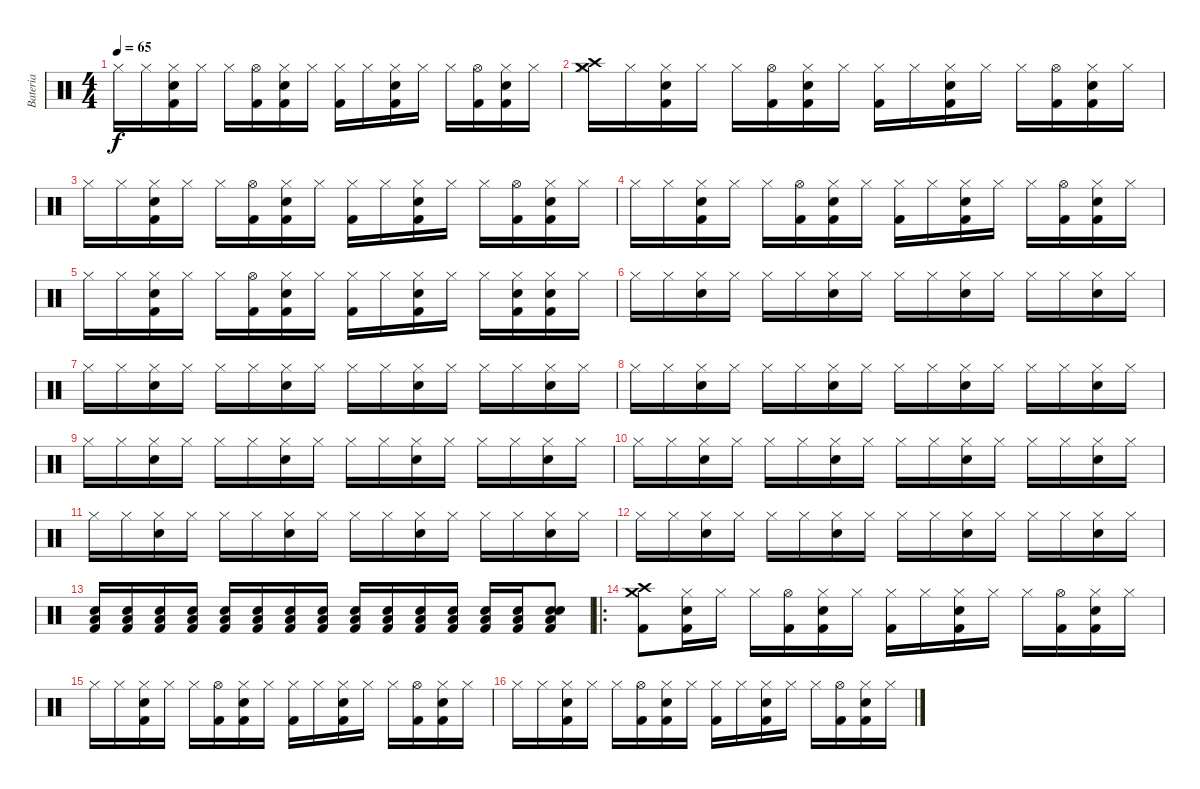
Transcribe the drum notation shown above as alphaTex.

\track ("Bateria" "Bateria") {instrument percussion}
\staff {score}
\articulation defaults
\ts (4 4)
\tempo 65
\clef neutral
\ks c "Hi-Hat (closed)".16{dy f} "Hi-Hat (closed)".16
("Hi-Hat (closed)" "Kick (hit) 2" "Electric Snare (hit)").16 "Hi-Hat (closed)".16 "Hi-Hat (closed)".16 ("Hi-Hat (open)" "Kick (hit) 2").16 ("Hi-Hat (closed)" "Kick (hit) 2" "Electric Snare (hit)").16 "Hi-Hat (closed)".16 ("Hi-Hat (closed)" "Kick (hit) 2").16 "Hi-Hat (closed)".16 ("Hi-Hat (closed)" "Kick (hit) 2" "Electric Snare (hit)").16 "Hi-Hat (closed)".16 "Hi-Hat (closed)".16 ("Hi-Hat (open)" "Kick (hit) 2").16 ("Hi-Hat (closed)" "Kick (hit) 2" "Electric Snare (hit)").16 "Hi-Hat (closed)".16 |
("Hi-Hat (closed)" "Crash high (hit)" "Crash medium (hit)").16 "Hi-Hat (closed)".16 ("Hi-Hat (closed)" "Kick (hit) 2" "Electric Snare (hit)").16 "Hi-Hat (closed)".16 "Hi-Hat (closed)".16 ("Hi-Hat (open)" "Kick (hit) 2").16 ("Hi-Hat (closed)" "Kick (hit) 2" "Electric Snare (hit)").16 "Hi-Hat (closed)".16 ("Hi-Hat (closed)" "Kick (hit) 2").16 "Hi-Hat (closed)".16 ("Hi-Hat (closed)" "Kick (hit) 2" "Electric Snare (hit)").16 "Hi-Hat (closed)".16 "Hi-Hat (closed)".16 ("Hi-Hat (open)" "Kick (hit) 2").16 ("Hi-Hat (closed)" "Kick (hit) 2" "Electric Snare (hit)").16 "Hi-Hat (closed)".16 |
"Hi-Hat (closed)".16 "Hi-Hat (closed)".16 ("Hi-Hat (closed)" "Kick (hit) 2" "Electric Snare (hit)").16 "Hi-Hat (closed)".16 "Hi-Hat (closed)".16 ("Hi-Hat (open)" "Kick (hit) 2").16 ("Hi-Hat (closed)" "Kick (hit) 2" "Electric Snare (hit)").16 "Hi-Hat (closed)".16 ("Hi-Hat (closed)" "Kick (hit) 2").16 "Hi-Hat (closed)".16 ("Hi-Hat (closed)" "Kick (hit) 2" "Electric Snare (hit)").16 "Hi-Hat (closed)".16 "Hi-Hat (closed)".16 ("Hi-Hat (open)" "Kick (hit) 2").16 ("Hi-Hat (closed)" "Kick (hit) 2" "Electric Snare (hit)").16 "Hi-Hat (closed)".16 |
"Hi-Hat (closed)".16 "Hi-Hat (closed)".16 ("Hi-Hat (closed)" "Kick (hit) 2" "Electric Snare (hit)").16 "Hi-Hat (closed)".16 "Hi-Hat (closed)".16 ("Hi-Hat (open)" "Kick (hit) 2").16 ("Hi-Hat (closed)" "Kick (hit) 2" "Electric Snare (hit)").16 "Hi-Hat (closed)".16 ("Hi-Hat (closed)" "Kick (hit) 2").16 "Hi-Hat (closed)".16 ("Hi-Hat (closed)" "Kick (hit) 2" "Electric Snare (hit)").16 "Hi-Hat (closed)".16 "Hi-Hat (closed)".16 ("Hi-Hat (open)" "Kick (hit) 2").16 ("Hi-Hat (closed)" "Kick (hit) 2" "Electric Snare (hit)").16 "Hi-Hat (closed)".16 |
"Hi-Hat (closed)".16 "Hi-Hat (closed)".16 ("Hi-Hat (closed)" "Kick (hit) 2" "Electric Snare (hit)").16 "Hi-Hat (closed)".16 "Hi-Hat (closed)".16 ("Hi-Hat (open)" "Kick (hit) 2").16 ("Hi-Hat (closed)" "Kick (hit) 2" "Electric Snare (hit)").16 "Hi-Hat (closed)".16 ("Hi-Hat (closed)" "Kick (hit) 2").16 "Hi-Hat (closed)".16 ("Hi-Hat (closed)" "Kick (hit) 2" "Electric Snare (hit)").16 "Hi-Hat (closed)".16 "Hi-Hat (closed)".16 ("Hi-Hat (closed)" "Kick (hit) 2" "Electric Snare (hit)").16 ("Hi-Hat (closed)" "Kick (hit) 2" "Electric Snare (hit)").16 "Hi-Hat (closed)".16 |
"Hi-Hat (closed)".16 "Hi-Hat (closed)".16 ("Hi-Hat (closed)" "Hand Clap (hit)").16 "Hi-Hat (closed)".16 "Hi-Hat (closed)".16 "Hi-Hat (closed)".16 ("Hi-Hat (closed)" "Hand Clap (hit)").16 "Hi-Hat (closed)".16 "Hi-Hat (closed)".16 "Hi-Hat (closed)".16 ("Hi-Hat (closed)" "Hand Clap (hit)").16 "Hi-Hat (closed)".16 "Hi-Hat (closed)".16 "Hi-Hat (closed)".16 ("Hi-Hat (closed)" "Hand Clap (hit)").16 "Hi-Hat (closed)".16 |
"Hi-Hat (closed)".16 "Hi-Hat (closed)".16 ("Hi-Hat (closed)" "Hand Clap (hit)").16 "Hi-Hat (closed)".16 "Hi-Hat (closed)".16 "Hi-Hat (closed)".16 ("Hi-Hat (closed)" "Hand Clap (hit)").16 "Hi-Hat (closed)".16 "Hi-Hat (closed)".16 "Hi-Hat (closed)".16 ("Hi-Hat (closed)" "Hand Clap (hit)").16 "Hi-Hat (closed)".16 "Hi-Hat (closed)".16 "Hi-Hat (closed)".16 ("Hi-Hat (closed)" "Hand Clap (hit)").16 "Hi-Hat (closed)".16 |
"Hi-Hat (closed)".16 "Hi-Hat (closed)".16 ("Hi-Hat (closed)" "Hand Clap (hit)").16 "Hi-Hat (closed)".16 "Hi-Hat (closed)".16 "Hi-Hat (closed)".16 ("Hi-Hat (closed)" "Hand Clap (hit)").16 "Hi-Hat (closed)".16 "Hi-Hat (closed)".16 "Hi-Hat (closed)".16 ("Hi-Hat (closed)" "Hand Clap (hit)").16 "Hi-Hat (closed)".16 "Hi-Hat (closed)".16 "Hi-Hat (closed)".16 ("Hi-Hat (closed)" "Hand Clap (hit)").16 "Hi-Hat (closed)".16 |
"Hi-Hat (closed)".16 "Hi-Hat (closed)".16 ("Hi-Hat (closed)" "Hand Clap (hit)").16 "Hi-Hat (closed)".16 "Hi-Hat (closed)".16 "Hi-Hat (closed)".16 ("Hi-Hat (closed)" "Hand Clap (hit)").16 "Hi-Hat (closed)".16 "Hi-Hat (closed)".16 "Hi-Hat (closed)".16 ("Hi-Hat (closed)" "Hand Clap (hit)").16 "Hi-Hat (closed)".16 "Hi-Hat (closed)".16 "Hi-Hat (closed)".16 ("Hi-Hat (closed)" "Hand Clap (hit)").16 "Hi-Hat (closed)".16 |
"Hi-Hat (closed)".16 "Hi-Hat (closed)".16 ("Hi-Hat (closed)" "Hand Clap (hit)").16 "Hi-Hat (closed)".16 "Hi-Hat (closed)".16 "Hi-Hat (closed)".16 ("Hi-Hat (closed)" "Hand Clap (hit)").16 "Hi-Hat (closed)".16 "Hi-Hat (closed)".16 "Hi-Hat (closed)".16 ("Hi-Hat (closed)" "Hand Clap (hit)").16 "Hi-Hat (closed)".16 "Hi-Hat (closed)".16 "Hi-Hat (closed)".16 ("Hi-Hat (closed)" "Hand Clap (hit)").16 "Hi-Hat (closed)".16 |
"Hi-Hat (closed)".16 "Hi-Hat (closed)".16 ("Hi-Hat (closed)" "Hand Clap (hit)").16 "Hi-Hat (closed)".16 "Hi-Hat (closed)".16 "Hi-Hat (closed)".16 ("Hi-Hat (closed)" "Hand Clap (hit)").16 "Hi-Hat (closed)".16 "Hi-Hat (closed)".16 "Hi-Hat (closed)".16 ("Hi-Hat (closed)" "Hand Clap (hit)").16 "Hi-Hat (closed)".16 "Hi-Hat (closed)".16 "Hi-Hat (closed)".16 ("Hi-Hat (closed)" "Hand Clap (hit)").16 "Hi-Hat (closed)".16 |
"Hi-Hat (closed)".16 "Hi-Hat (closed)".16 ("Hi-Hat (closed)" "Hand Clap (hit)").16 "Hi-Hat (closed)".16 "Hi-Hat (closed)".16 "Hi-Hat (closed)".16 ("Hi-Hat (closed)" "Hand Clap (hit)").16 "Hi-Hat (closed)".16 "Hi-Hat (closed)".16 "Hi-Hat (closed)".16 ("Hi-Hat (closed)" "Hand Clap (hit)").16 "Hi-Hat (closed)".16 "Hi-Hat (closed)".16 "Hi-Hat (closed)".16 ("Hi-Hat (closed)" "Hand Clap (hit)").16 "Hi-Hat (closed)".16 |
("Kick (hit) 2" "Electric Snare (hit)" "Low Floor Tom (hit)").16{volume 1} ("Kick (hit) 2" "Electric Snare (hit)" "Low Floor Tom (hit)").16{volume 2} ("Kick (hit) 2" "Electric Snare (hit)" "Low Floor Tom (hit)").16{volume 3} ("Kick (hit) 2" "Electric Snare (hit)" "Low Floor Tom (hit)").16{volume 4} ("Kick (hit) 2" "Electric Snare (hit)" "Low Floor Tom (hit)").16{volume 5} ("Kick (hit) 2" "Electric Snare (hit)" "Low Floor Tom (hit)").16{volume 6} ("Kick (hit) 2" "Electric Snare (hit)" "Low Floor Tom (hit)").16{volume 7} ("Kick (hit) 2" "Electric Snare (hit)" "Low Floor Tom (hit)").16{volume 9} ("Kick (hit) 2" "Electric Snare (hit)" "Low Floor Tom (hit)").16{volume 9} ("Kick (hit) 2" "Electric Snare (hit)" "Low Floor Tom (hit)").16{volume 10} ("Kick (hit) 2" "Electric Snare (hit)" "Low Floor Tom (hit)").16{volume 11} ("Kick (hit) 2" "Electric Snare (hit)" "Low Floor Tom (hit)").16{volume 12} ("Kick (hit) 2" "Electric Snare (hit)" "Low Floor Tom (hit)").16{volume 12} ("Kick (hit) 2" "Electric Snare (hit)" "Low Floor Tom (hit)").16{volume 13} ("Kick (hit) 2" "Electric Snare (hit)" "Snare (hit) 2" "Low Floor Tom (hit)").8{volume 16} |
\ro
("Crash medium (hit)" "Kick (hit) 2" "Crash high (hit)").8{volume 16} ("Hi-Hat (closed)" "Kick (hit) 2" "Electric Snare (hit)").16 "Hi-Hat (closed)".16 "Hi-Hat (closed)".16 ("Hi-Hat (open)" "Kick (hit) 2").16 ("Hi-Hat (closed)" "Kick (hit) 2" "Electric Snare (hit)").16 "Hi-Hat (closed)".16 ("Hi-Hat (closed)" "Kick (hit) 2").16 "Hi-Hat (closed)".16 ("Hi-Hat (closed)" "Kick (hit) 2" "Electric Snare (hit)").16 "Hi-Hat (closed)".16 "Hi-Hat (closed)".16 ("Hi-Hat (open)" "Kick (hit) 2").16 ("Hi-Hat (closed)" "Kick (hit) 2" "Electric Snare (hit)").16 "Hi-Hat (closed)".16 |
"Hi-Hat (closed)".16 "Hi-Hat (closed)".16 ("Hi-Hat (closed)" "Kick (hit) 2" "Electric Snare (hit)").16 "Hi-Hat (closed)".16 "Hi-Hat (closed)".16 ("Hi-Hat (open)" "Kick (hit) 2").16 ("Hi-Hat (closed)" "Kick (hit) 2" "Electric Snare (hit)").16 "Hi-Hat (closed)".16 ("Hi-Hat (closed)" "Kick (hit) 2").16 "Hi-Hat (closed)".16 ("Hi-Hat (closed)" "Kick (hit) 2" "Electric Snare (hit)").16 "Hi-Hat (closed)".16 "Hi-Hat (closed)".16 ("Hi-Hat (open)" "Kick (hit) 2").16 ("Hi-Hat (closed)" "Kick (hit) 2" "Electric Snare (hit)").16 "Hi-Hat (closed)".16 |
"Hi-Hat (closed)".16 "Hi-Hat (closed)".16 ("Hi-Hat (closed)" "Kick (hit) 2" "Electric Snare (hit)").16 "Hi-Hat (closed)".16 "Hi-Hat (closed)".16 ("Hi-Hat (open)" "Kick (hit) 2").16 ("Hi-Hat (closed)" "Kick (hit) 2" "Electric Snare (hit)").16 "Hi-Hat (closed)".16 ("Hi-Hat (closed)" "Kick (hit) 2").16 "Hi-Hat (closed)".16 ("Hi-Hat (closed)" "Kick (hit) 2" "Electric Snare (hit)").16 "Hi-Hat (closed)".16 "Hi-Hat (closed)".16 ("Hi-Hat (open)" "Kick (hit) 2").16 ("Hi-Hat (closed)" "Kick (hit) 2" "Electric Snare (hit)").16 "Hi-Hat (closed)".16
